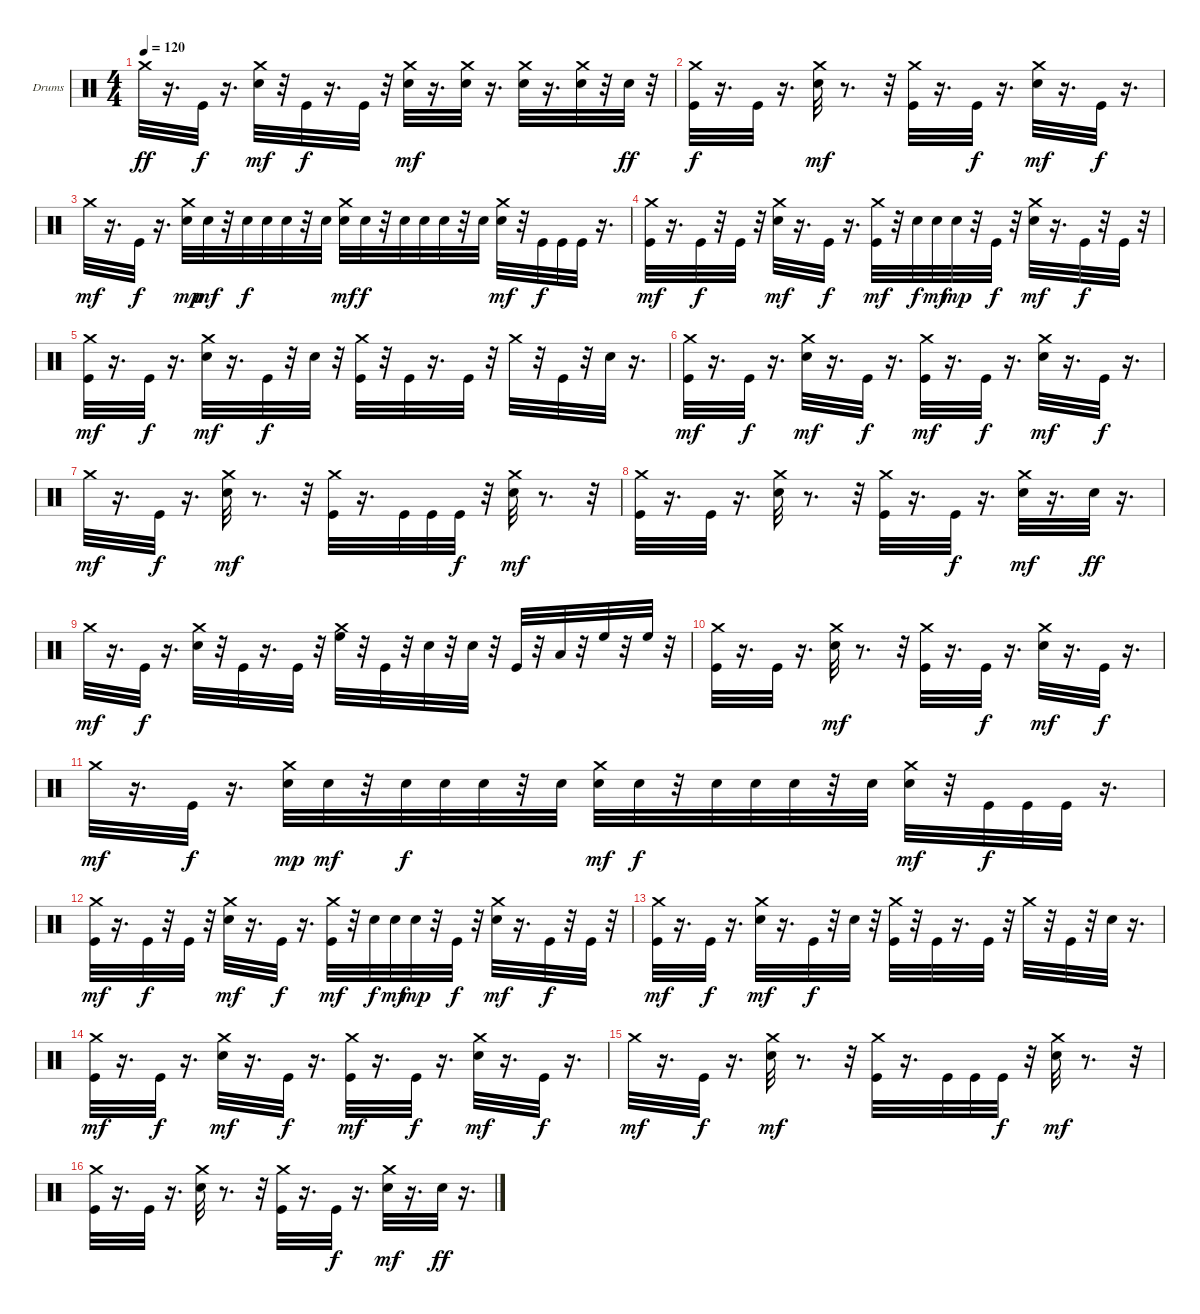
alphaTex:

\bracketExtendMode groupsimilarinstruments
\firstSystemTrackNameOrientation horizontal
\otherSystemsTrackNameOrientation horizontal
\track ("Drumkit" "Drums") {instrument percussion}
\staff {score}
\articulation defaults
\ts (4 4)
\tempo 120
\clef neutral
\ks c "Crash medium (hit)".32{dy ff}
r.16{d} "Kick (hit)".32{dy f} r.16{d} ("Crash medium (hit)" "Snare (hit) 2").32{dy mf} r.32 "Kick (hit)".32{dy f} r.16{d} "Kick (hit)".32 r.32 ("Crash medium (hit)" "Snare (hit) 2").32{dy mf} r.16{d} ("Crash medium (hit)" "Snare (hit) 2").32 r.16{d} ("Crash medium (hit)" "Snare (hit) 2").32 r.16{d} ("Crash medium (hit)" "Snare (hit) 2").32 r.32 "Snare (hit) 2".32{dy ff} r.32 |
("Crash medium (hit)" "Kick (hit)").32{dy f} r.16{d} "Kick (hit)".32 r.16{d} ("Crash medium (hit)" "Snare (hit) 2").32{dy mf} r.8{d} r.32 ("Crash medium (hit)" "Kick (hit)").32 r.16{d} "Kick (hit)".32{dy f} r.16{d} ("Crash medium (hit)" "Snare (hit) 2").32{dy mf} r.16{d} "Kick (hit)".32{dy f} r.16{d} |
"Crash medium (hit)".32{dy mf} r.16{d} "Kick (hit)".32{dy f} r.16{d} ("Crash medium (hit)" "Snare (hit) 2").32{dy mp} "Snare (hit) 2".32{dy mf} r.32 "Snare (hit) 2".32{dy f} "Snare (hit) 2".32 "Snare (hit) 2".32 r.32 "Snare (hit) 2".32 ("Crash medium (hit)" "Snare (hit) 2").32{dy mf} "Snare (hit) 2".32{dy f} r.32 "Snare (hit) 2".32 "Snare (hit) 2".32 "Snare (hit) 2".32 r.32 "Snare (hit) 2".32 ("Crash medium (hit)" "Snare (hit) 2").32{dy mf} r.32 "Kick (hit)".32{dy f} "Kick (hit)".32 "Kick (hit)".32 r.16{d} |
("Crash medium (hit)" "Kick (hit)").32{dy mf} r.16{d} "Kick (hit)".32{dy f} r.32 "Kick (hit)".32 r.32 ("Crash medium (hit)" "Snare (hit) 2").32{dy mf} r.16{d} "Kick (hit)".32{dy f} r.16{d} ("Crash medium (hit)" "Kick (hit)").32{dy mf} r.32 "Snare (hit) 2".32{dy f} "Snare (hit) 2".32{dy mf} "Snare (hit) 2".32{dy mp} r.32 "Kick (hit)".32{dy f} r.32 ("Crash medium (hit)" "Snare (hit) 2").32{dy mf} r.16{d} "Kick (hit)".32{dy f} r.32 "Kick (hit)".32 r.32 |
("Crash medium (hit)" "Kick (hit)").32{dy mf} r.16{d} "Kick (hit)".32{dy f} r.16{d} ("Crash medium (hit)" "Snare (hit) 2").32{dy mf} r.16{d} "Kick (hit)".32{dy f} r.32 "Snare (hit) 2".32 r.32 ("Crash medium (hit)" "Kick (hit)").32 r.32 "Kick (hit)".32 r.16{d} "Kick (hit)".32 r.32 "Crash medium (hit)".32 r.32 "Kick (hit)".32 r.32 "Snare (hit) 2".32 r.16{d} |
("Crash medium (hit)" "Kick (hit)").32{dy mf} r.16{d} "Kick (hit)".32{dy f} r.16{d} ("Crash medium (hit)" "Snare (hit) 2").32{dy mf} r.16{d} "Kick (hit)".32{dy f} r.16{d} ("Crash medium (hit)" "Kick (hit)").32{dy mf} r.16{d} "Kick (hit)".32{dy f} r.16{d} ("Crash medium (hit)" "Snare (hit) 2").32{dy mf} r.16{d} "Kick (hit)".32{dy f} r.16{d} |
"Crash medium (hit)".32{dy mf} r.16{d} "Kick (hit)".32{dy f} r.16{d} ("Crash medium (hit)" "Snare (hit) 2").32{dy mf} r.8{d} r.32 ("Crash medium (hit)" "Kick (hit)").32 r.16{d} "Kick (hit)".32 "Kick (hit)".32 "Kick (hit)".32{dy f} r.32 ("Crash medium (hit)" "Snare (hit) 2").32{dy mf} r.8{d} r.32 |
("Crash medium (hit)" "Kick (hit)").32 r.16{d} "Kick (hit)".32 r.16{d} ("Crash medium (hit)" "Snare (hit) 2").32 r.8{d} r.32 ("Crash medium (hit)" "Kick (hit)").32 r.16{d} "Kick (hit)".32{dy f} r.16{d} ("Crash medium (hit)" "Snare (hit) 2").32{dy mf} r.16{d} "Snare (hit) 2".32{dy ff} r.16{d} |
"Crash medium (hit)".32{dy mf} r.16{d} "Kick (hit)".32{dy f} r.16{d} ("Snare (hit) 2" "Crash medium (hit)").32 r.32 "Kick (hit)".32 r.16{d} "Kick (hit)".32 r.32 ("High Floor Tom (hit)" "Crash medium (hit)").32 r.32 "Kick (hit)".32 r.32 "Snare (hit) 2".32 r.32 "Snare (hit) 2".32 r.32 "Kick (hit)".32 r.32 "Low Tom (hit)".32 r.32 "High Floor Tom (hit)".32 r.32 "High Floor Tom (hit)".32 r.32 |
("Crash medium (hit)" "Kick (hit)").32 r.16{d} "Kick (hit)".32 r.16{d} ("Crash medium (hit)" "Snare (hit) 2").32{dy mf} r.8{d} r.32 ("Crash medium (hit)" "Kick (hit)").32 r.16{d} "Kick (hit)".32{dy f} r.16{d} ("Crash medium (hit)" "Snare (hit) 2").32{dy mf} r.16{d} "Kick (hit)".32{dy f} r.16{d} |
"Crash medium (hit)".32{dy mf} r.16{d} "Kick (hit)".32{dy f} r.16{d} ("Crash medium (hit)" "Snare (hit) 2").32{dy mp} "Snare (hit) 2".32{dy mf} r.32 "Snare (hit) 2".32{dy f} "Snare (hit) 2".32 "Snare (hit) 2".32 r.32 "Snare (hit) 2".32 ("Crash medium (hit)" "Snare (hit) 2").32{dy mf} "Snare (hit) 2".32{dy f} r.32 "Snare (hit) 2".32 "Snare (hit) 2".32 "Snare (hit) 2".32 r.32 "Snare (hit) 2".32 ("Crash medium (hit)" "Snare (hit) 2").32{dy mf} r.32 "Kick (hit)".32{dy f} "Kick (hit)".32 "Kick (hit)".32 r.16{d} |
("Crash medium (hit)" "Kick (hit)").32{dy mf} r.16{d} "Kick (hit)".32{dy f} r.32 "Kick (hit)".32 r.32 ("Crash medium (hit)" "Snare (hit) 2").32{dy mf} r.16{d} "Kick (hit)".32{dy f} r.16{d} ("Crash medium (hit)" "Kick (hit)").32{dy mf} r.32 "Snare (hit) 2".32{dy f} "Snare (hit) 2".32{dy mf} "Snare (hit) 2".32{dy mp} r.32 "Kick (hit)".32{dy f} r.32 ("Crash medium (hit)" "Snare (hit) 2").32{dy mf} r.16{d} "Kick (hit)".32{dy f} r.32 "Kick (hit)".32 r.32 |
("Crash medium (hit)" "Kick (hit)").32{dy mf} r.16{d} "Kick (hit)".32{dy f} r.16{d} ("Crash medium (hit)" "Snare (hit) 2").32{dy mf} r.16{d} "Kick (hit)".32{dy f} r.32 "Snare (hit) 2".32 r.32 ("Crash medium (hit)" "Kick (hit)").32 r.32 "Kick (hit)".32 r.16{d} "Kick (hit)".32 r.32 "Crash medium (hit)".32 r.32 "Kick (hit)".32 r.32 "Snare (hit) 2".32 r.16{d} |
("Crash medium (hit)" "Kick (hit)").32{dy mf} r.16{d} "Kick (hit)".32{dy f} r.16{d} ("Crash medium (hit)" "Snare (hit) 2").32{dy mf} r.16{d} "Kick (hit)".32{dy f} r.16{d} ("Crash medium (hit)" "Kick (hit)").32{dy mf} r.16{d} "Kick (hit)".32{dy f} r.16{d} ("Crash medium (hit)" "Snare (hit) 2").32{dy mf} r.16{d} "Kick (hit)".32{dy f} r.16{d} |
"Crash medium (hit)".32{dy mf} r.16{d} "Kick (hit)".32{dy f} r.16{d} ("Crash medium (hit)" "Snare (hit) 2").32{dy mf} r.8{d} r.32 ("Crash medium (hit)" "Kick (hit)").32 r.16{d} "Kick (hit)".32 "Kick (hit)".32 "Kick (hit)".32{dy f} r.32 ("Crash medium (hit)" "Snare (hit) 2").32{dy mf} r.8{d} r.32 |
("Crash medium (hit)" "Kick (hit)").32 r.16{d} "Kick (hit)".32 r.16{d} ("Crash medium (hit)" "Snare (hit) 2").32 r.8{d} r.32 ("Crash medium (hit)" "Kick (hit)").32 r.16{d} "Kick (hit)".32{dy f} r.16{d} ("Crash medium (hit)" "Snare (hit) 2").32{dy mf} r.16{d} "Snare (hit) 2".32{dy ff} r.16{d}
